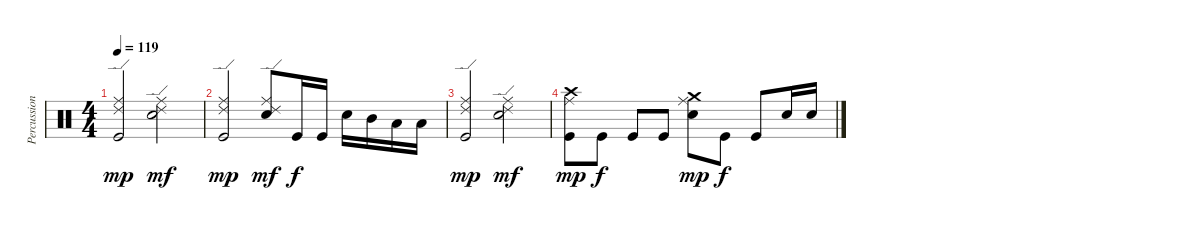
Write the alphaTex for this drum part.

\track ("Percussion" "Percussion") {instrument percussion}
\staff {score}
\articulation defaults
\ts (4 4)
\tempo 119
\clef neutral
\ks c
("Ride (edge) 2" "Ride (middle)" "Kick (hit)").2{dy mp} ("Ride (edge) 2" "Ride (middle)" "Snare (hit) 2").2{dy mf} |
("Ride (edge) 2" "Ride (middle)" "Kick (hit)").2{dy mp} ("Ride (edge) 2" "Ride (middle)" "Snare (hit) 2").8{dy mf} "Kick (hit)".16{dy f} "Kick (hit)".16 "Snare (hit) 2".16 "Mid Tom (hit)".16 "Low Tom (hit)".16 "Low Tom (hit)".16 |
("Ride (edge) 2" "Ride (middle)" "Kick (hit)").2{dy mp volume 1} ("Ride (edge) 2" "Ride (middle)" "Snare (hit) 2").2{dy mf} |
("Crash high (hit)" "Ride (middle)" "Kick (hit)").8{dy mp} "Kick (hit)".8{dy f} "Kick (hit)".8 "Kick (hit)".8 ("Crash medium (hit)" "Ride (middle)" "Snare (hit) 2").8{dy mp} "Kick (hit)".8{dy f} "Kick (hit)".8 "Snare (hit) 2".16 "Snare (hit) 2".16
